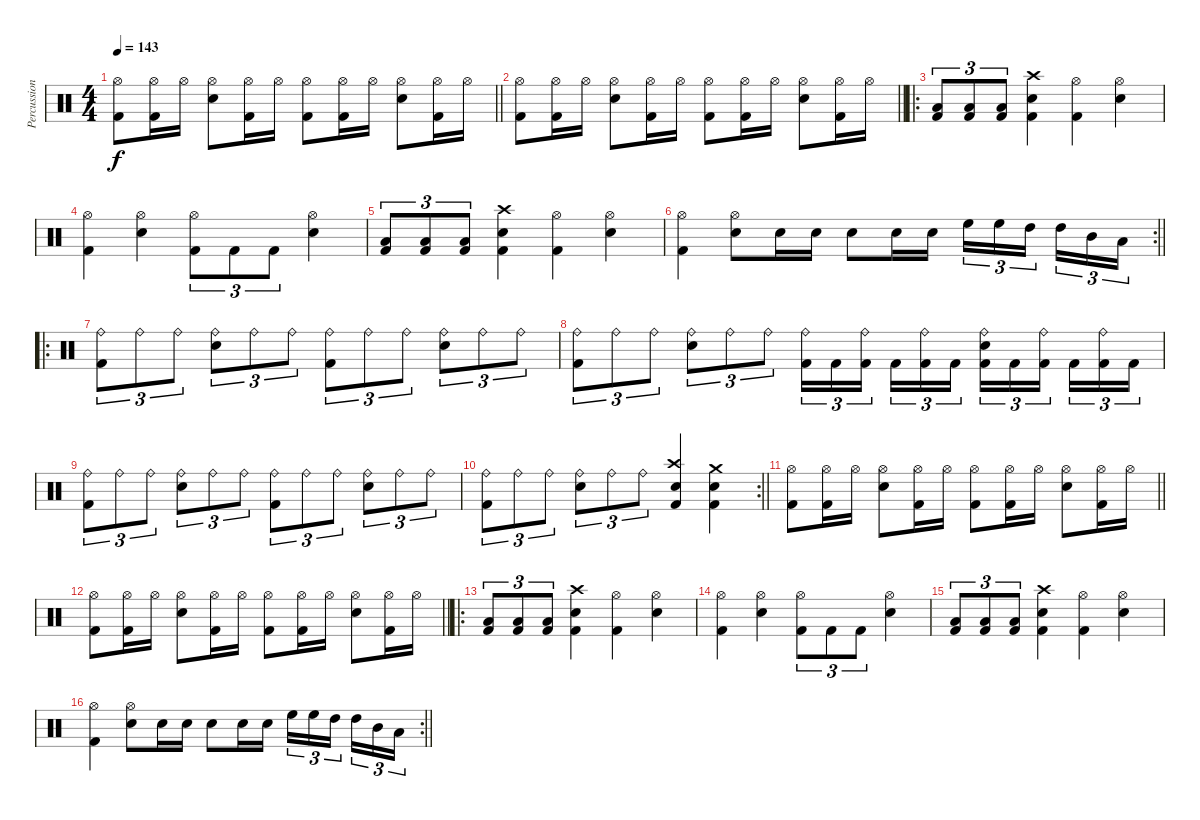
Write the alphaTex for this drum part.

\track ("Percussion" "Percussion") {instrument percussion}
\staff {score}
\articulation defaults
\ts (4 4)
\section ("" "")
\tempo 143
\clef neutral
\barLineRight lightlight
\ks c
("Hi-Hat (open)" "Kick (hit) 2").8{dy f} ("Hi-Hat (open)" "Kick (hit) 2").16 "Hi-Hat (open)".16 ("Hi-Hat (open)" "Snare (hit) 2").8 ("Hi-Hat (open)" "Kick (hit) 2").16 "Hi-Hat (open)".16 ("Hi-Hat (open)" "Kick (hit) 2").8 ("Hi-Hat (open)" "Kick (hit) 2").16 "Hi-Hat (open)".16 ("Hi-Hat (open)" "Snare (hit) 2").8 ("Hi-Hat (open)" "Kick (hit) 2").16 "Hi-Hat (open)".16 |
\barLineRight lightlight
("Hi-Hat (open)" "Kick (hit) 2").8 ("Hi-Hat (open)" "Kick (hit) 2").16 "Hi-Hat (open)".16 ("Hi-Hat (open)" "Snare (hit) 2").8 ("Hi-Hat (open)" "Kick (hit) 2").16 "Hi-Hat (open)".16 ("Hi-Hat (open)" "Kick (hit) 2").8 ("Hi-Hat (open)" "Kick (hit) 2").16 "Hi-Hat (open)".16 ("Hi-Hat (open)" "Snare (hit) 2").8 ("Hi-Hat (open)" "Kick (hit) 2").16 "Hi-Hat (open)".16 |
\ro
\section ("" "")
("Low Tom (hit)" "Kick (hit) 2").8{tu (3 2)} ("Low Tom (hit)" "Kick (hit) 2").8{tu (3 2)} ("Low Tom (hit)" "Kick (hit) 2").8{tu (3 2)} ("Crash high (hit)" "Snare (hit) 2" "Kick (hit) 2").4 ("Hi-Hat (open)" "Kick (hit) 2").4 ("Hi-Hat (open)" "Snare (hit) 2").4 |
("Hi-Hat (open)" "Kick (hit) 2").4 ("Hi-Hat (open)" "Snare (hit) 2").4 ("Hi-Hat (open)" "Kick (hit) 2").8{tu (3 2)} "Kick (hit) 2".8{tu (3 2)} "Kick (hit) 2".8{tu (3 2)} ("Hi-Hat (open)" "Snare (hit) 2").4 |
("Low Tom (hit)" "Kick (hit) 2").8{tu (3 2)} ("Low Tom (hit)" "Kick (hit) 2").8{tu (3 2)} ("Low Tom (hit)" "Kick (hit) 2").8{tu (3 2)} ("Crash high (hit)" "Snare (hit) 2" "Kick (hit) 2").4 ("Hi-Hat (open)" "Kick (hit) 2").4 ("Hi-Hat (open)" "Snare (hit) 2").4 |
\rc 2
\barLineRight lightlight
("Hi-Hat (open)" "Kick (hit) 2").4 ("Hi-Hat (open)" "Snare (hit) 2").8 "Snare (hit) 2".16 "Snare (hit) 2".16 "Snare (hit) 2".8 "Snare (hit) 2".16 "Snare (hit) 2".16 "High Floor Tom (hit)".16{tu (3 2)} "High Floor Tom (hit)".16{tu (3 2)} "High Tom (hit)".16{tu (3 2) beam splitsecondary} "High Tom (hit)".16{tu (3 2)} "Mid Tom (hit)".16{tu (3 2)} "Low Tom (hit)".16{tu (3 2)} |
\ro
\section ("" "")
("Ride (bell)" "Kick (hit) 2").8{tu (3 2)} "Ride (bell)".8{tu (3 2)} "Ride (bell)".8{tu (3 2)} ("Ride (bell)" "Electric Snare (hit)").8{tu (3 2)} "Ride (bell)".8{tu (3 2)} "Ride (bell)".8{tu (3 2)} ("Ride (bell)" "Kick (hit) 2").8{tu (3 2)} "Ride (bell)".8{tu (3 2)} "Ride (bell)".8{tu (3 2)} ("Ride (bell)" "Electric Snare (hit)").8{tu (3 2)} "Ride (bell)".8{tu (3 2)} "Ride (bell)".8{tu (3 2)} |
("Ride (bell)" "Kick (hit) 2").8{tu (3 2)} "Ride (bell)".8{tu (3 2)} "Ride (bell)".8{tu (3 2)} ("Ride (bell)" "Electric Snare (hit)").8{tu (3 2)} "Ride (bell)".8{tu (3 2)} "Ride (bell)".8{tu (3 2)} ("Ride (bell)" "Kick (hit) 2").16{tu (3 2)} "Kick (hit) 2".16{tu (3 2)} ("Ride (bell)" "Kick (hit) 2").16{tu (3 2) beam splitsecondary} "Kick (hit) 2".16{tu (3 2)} ("Ride (bell)" "Kick (hit) 2").16{tu (3 2)} "Kick (hit) 2".16{tu (3 2)} ("Ride (bell)" "Electric Snare (hit)" "Kick (hit) 2").16{tu (3 2)} "Kick (hit) 2".16{tu (3 2)} ("Ride (bell)" "Kick (hit) 2").16{tu (3 2) beam splitsecondary} "Kick (hit) 2".16{tu (3 2)} ("Ride (bell)" "Kick (hit) 2").16{tu (3 2)} "Kick (hit) 2".16{tu (3 2)} |
("Ride (bell)" "Kick (hit) 2").8{tu (3 2)} "Ride (bell)".8{tu (3 2)} "Ride (bell)".8{tu (3 2)} ("Ride (bell)" "Electric Snare (hit)").8{tu (3 2)} "Ride (bell)".8{tu (3 2)} "Ride (bell)".8{tu (3 2)} ("Ride (bell)" "Kick (hit) 2").8{tu (3 2)} "Ride (bell)".8{tu (3 2)} "Ride (bell)".8{tu (3 2)} ("Ride (bell)" "Electric Snare (hit)").8{tu (3 2)} "Ride (bell)".8{tu (3 2)} "Ride (bell)".8{tu (3 2)} |
\rc 2
\barLineRight lightlight
("Ride (bell)" "Kick (hit) 2").8{tu (3 2)} "Ride (bell)".8{tu (3 2)} "Ride (bell)".8{tu (3 2)} ("Ride (bell)" "Electric Snare (hit)").8{tu (3 2)} "Ride (bell)".8{tu (3 2)} "Ride (bell)".8{tu (3 2)} ("Crash high (hit)" "Electric Snare (hit)" "Kick (hit) 2").4 ("Crash medium (hit)" "Electric Snare (hit)" "Kick (hit) 2").4 |
\section ("" "")
\barLineRight lightlight
("Hi-Hat (open)" "Kick (hit) 2").8 ("Hi-Hat (open)" "Kick (hit) 2").16 "Hi-Hat (open)".16 ("Hi-Hat (open)" "Snare (hit) 2").8 ("Hi-Hat (open)" "Kick (hit) 2").16 "Hi-Hat (open)".16 ("Hi-Hat (open)" "Kick (hit) 2").8 ("Hi-Hat (open)" "Kick (hit) 2").16 "Hi-Hat (open)".16 ("Hi-Hat (open)" "Snare (hit) 2").8 ("Hi-Hat (open)" "Kick (hit) 2").16 "Hi-Hat (open)".16 |
\barLineRight lightlight
("Hi-Hat (open)" "Kick (hit) 2").8 ("Hi-Hat (open)" "Kick (hit) 2").16 "Hi-Hat (open)".16 ("Hi-Hat (open)" "Snare (hit) 2").8 ("Hi-Hat (open)" "Kick (hit) 2").16 "Hi-Hat (open)".16 ("Hi-Hat (open)" "Kick (hit) 2").8 ("Hi-Hat (open)" "Kick (hit) 2").16 "Hi-Hat (open)".16 ("Hi-Hat (open)" "Snare (hit) 2").8 ("Hi-Hat (open)" "Kick (hit) 2").16 "Hi-Hat (open)".16 |
\ro
\section ("" "")
("Low Tom (hit)" "Kick (hit) 2").8{tu (3 2)} ("Low Tom (hit)" "Kick (hit) 2").8{tu (3 2)} ("Low Tom (hit)" "Kick (hit) 2").8{tu (3 2)} ("Crash high (hit)" "Snare (hit) 2" "Kick (hit) 2").4 ("Hi-Hat (open)" "Kick (hit) 2").4 ("Hi-Hat (open)" "Snare (hit) 2").4 |
("Hi-Hat (open)" "Kick (hit) 2").4 ("Hi-Hat (open)" "Snare (hit) 2").4 ("Hi-Hat (open)" "Kick (hit) 2").8{tu (3 2)} "Kick (hit) 2".8{tu (3 2)} "Kick (hit) 2".8{tu (3 2)} ("Hi-Hat (open)" "Snare (hit) 2").4 |
("Low Tom (hit)" "Kick (hit) 2").8{tu (3 2)} ("Low Tom (hit)" "Kick (hit) 2").8{tu (3 2)} ("Low Tom (hit)" "Kick (hit) 2").8{tu (3 2)} ("Crash high (hit)" "Snare (hit) 2" "Kick (hit) 2").4 ("Hi-Hat (open)" "Kick (hit) 2").4 ("Hi-Hat (open)" "Snare (hit) 2").4 |
\rc 2
\barLineRight lightlight
("Hi-Hat (open)" "Kick (hit) 2").4 ("Hi-Hat (open)" "Snare (hit) 2").8 "Snare (hit) 2".16 "Snare (hit) 2".16 "Snare (hit) 2".8 "Snare (hit) 2".16 "Snare (hit) 2".16 "High Floor Tom (hit)".16{tu (3 2)} "High Floor Tom (hit)".16{tu (3 2)} "High Tom (hit)".16{tu (3 2) beam splitsecondary} "High Tom (hit)".16{tu (3 2)} "Mid Tom (hit)".16{tu (3 2)} "Low Tom (hit)".16{tu (3 2)}
